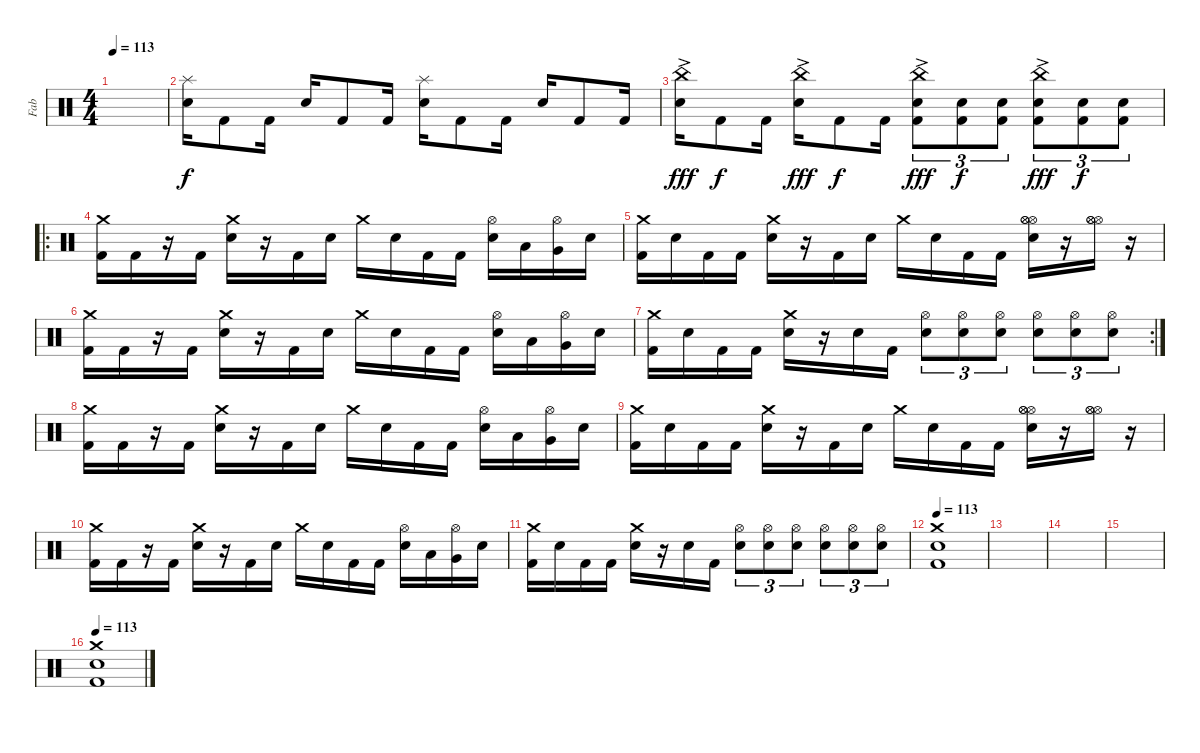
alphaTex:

\track ("Fab" "Fab") {instrument percussion}
\staff {score}
\articulation defaults
\ts (4 4)
\tempo 113
\clef neutral
\ks c
|
("Splash (hit)" "Electric Snare (hit)").16 "Kick (hit) 2".8 "Kick (hit) 2".16 "Electric Snare (hit)".16 "Kick (hit) 2".8 "Kick (hit) 2".16 ("Splash (hit)" "Electric Snare (hit)").16 "Kick (hit) 2".8 "Kick (hit) 2".16 "Electric Snare (hit)".16 "Kick (hit) 2".8 "Kick (hit) 2".16 |
("China (hit)"{ac} "Electric Snare (hit)").16{dy fff} "Kick (hit) 2".8{dy f} "Kick (hit) 2".16 ("China (hit)"{ac} "Electric Snare (hit)").16{dy fff} "Kick (hit) 2".8{dy f} "Kick (hit) 2".16 ("China (hit)"{ac} "Electric Snare (hit)" "Kick (hit) 2").8{tu (3 2) dy fff} ("Electric Snare (hit)" "Kick (hit) 2").8{tu (3 2) dy f} ("Electric Snare (hit)" "Kick (hit) 2").8{tu (3 2)} ("China (hit)"{ac} "Electric Snare (hit)" "Kick (hit) 2").8{tu (3 2) dy fff} ("Electric Snare (hit)" "Kick (hit) 2").8{tu (3 2) dy f} ("Electric Snare (hit)" "Kick (hit) 2").8{tu (3 2)} |
\ro
("Crash medium (hit)" "Kick (hit) 2").16 "Kick (hit) 2".16 r.16 "Kick (hit) 2".16 ("Crash medium (hit)" "Electric Snare (hit)").16 r.16 "Kick (hit) 2".16 "Electric Snare (hit)".16 "Crash medium (hit)".16 "Electric Snare (hit)".16 "Kick (hit) 2".16 "Kick (hit) 2".16 ("Hi-Hat (open)" "Electric Snare (hit)").16 "Low Tom (hit)".16 ("Hi-Hat (open)" "Very Low Tom (hit)").16 "Electric Snare (hit)".16 |
("Crash medium (hit)" "Kick (hit) 2").16 "Electric Snare (hit)".16 "Kick (hit) 2".16 "Kick (hit) 2".16 ("Crash medium (hit)" "Electric Snare (hit)").16 r.16 "Kick (hit) 2".16 "Electric Snare (hit)".16 "Crash medium (hit)".16 "Electric Snare (hit)".16 "Kick (hit) 2".16 "Kick (hit) 2".16 ("Hi-Hat (open)" "Hi-Hat (open)" "Hi-Hat (open)" "Electric Snare (hit)").16 r.16 ("Hi-Hat (open)" "Hi-Hat (open)" "Hi-Hat (open)").16 r.16 |
("Crash medium (hit)" "Kick (hit) 2").16 "Kick (hit) 2".16 r.16 "Kick (hit) 2".16 ("Crash medium (hit)" "Electric Snare (hit)").16 r.16 "Kick (hit) 2".16 "Electric Snare (hit)".16 "Crash medium (hit)".16 "Electric Snare (hit)".16 "Kick (hit) 2".16 "Kick (hit) 2".16 ("Hi-Hat (open)" "Electric Snare (hit)").16 "Low Tom (hit)".16 ("Hi-Hat (open)" "Very Low Tom (hit)").16 "Electric Snare (hit)".16 |
\rc 2
("Crash medium (hit)" "Kick (hit) 2").16 "Electric Snare (hit)".16 "Kick (hit) 2".16 "Kick (hit) 2".16 ("Crash medium (hit)" "Electric Snare (hit)").16 r.16 "Electric Snare (hit)".16 "Kick (hit) 2".16 ("Hi-Hat (open)" "Electric Snare (hit)").8{tu (3 2)} ("Hi-Hat (open)" "Electric Snare (hit)").8{tu (3 2)} ("Hi-Hat (open)" "Electric Snare (hit)").8{tu (3 2)} ("Hi-Hat (open)" "Electric Snare (hit)").8{tu (3 2)} ("Hi-Hat (open)" "Electric Snare (hit)").8{tu (3 2)} ("Hi-Hat (open)" "Electric Snare (hit)").8{tu (3 2)} |
("Crash medium (hit)" "Kick (hit) 2").16 "Kick (hit) 2".16 r.16 "Kick (hit) 2".16 ("Crash medium (hit)" "Electric Snare (hit)").16 r.16 "Kick (hit) 2".16 "Electric Snare (hit)".16 "Crash medium (hit)".16 "Electric Snare (hit)".16 "Kick (hit) 2".16 "Kick (hit) 2".16 ("Hi-Hat (open)" "Electric Snare (hit)").16 "Low Tom (hit)".16 ("Hi-Hat (open)" "Very Low Tom (hit)").16 "Electric Snare (hit)".16 |
("Crash medium (hit)" "Kick (hit) 2").16 "Electric Snare (hit)".16 "Kick (hit) 2".16 "Kick (hit) 2".16 ("Crash medium (hit)" "Electric Snare (hit)").16 r.16 "Kick (hit) 2".16 "Electric Snare (hit)".16 "Crash medium (hit)".16 "Electric Snare (hit)".16 "Kick (hit) 2".16 "Kick (hit) 2".16 ("Hi-Hat (open)" "Hi-Hat (open)" "Hi-Hat (open)" "Electric Snare (hit)").16 r.16 ("Hi-Hat (open)" "Hi-Hat (open)" "Hi-Hat (open)").16 r.16 |
("Crash medium (hit)" "Kick (hit) 2").16 "Kick (hit) 2".16 r.16 "Kick (hit) 2".16 ("Crash medium (hit)" "Electric Snare (hit)").16 r.16 "Kick (hit) 2".16 "Electric Snare (hit)".16 "Crash medium (hit)".16 "Electric Snare (hit)".16 "Kick (hit) 2".16 "Kick (hit) 2".16 ("Hi-Hat (open)" "Electric Snare (hit)").16 "Low Tom (hit)".16 ("Hi-Hat (open)" "Very Low Tom (hit)").16 "Electric Snare (hit)".16 |
("Crash medium (hit)" "Kick (hit) 2").16 "Electric Snare (hit)".16 "Kick (hit) 2".16 "Kick (hit) 2".16 ("Crash medium (hit)" "Electric Snare (hit)").16 r.16 "Electric Snare (hit)".16 "Kick (hit) 2".16 ("Hi-Hat (open)" "Electric Snare (hit)").8{tu (3 2)} ("Hi-Hat (open)" "Electric Snare (hit)").8{tu (3 2)} ("Hi-Hat (open)" "Electric Snare (hit)").8{tu (3 2)} ("Hi-Hat (open)" "Electric Snare (hit)").8{tu (3 2)} ("Hi-Hat (open)" "Electric Snare (hit)").8{tu (3 2)} ("Hi-Hat (open)" "Electric Snare (hit)").8{tu (3 2)} |
\tempo 113
("Crash medium (hit)" "Electric Snare (hit)" "Kick (hit) 2").1 |
|
|
|
\tempo 113
("Crash medium (hit)" "Electric Snare (hit)" "Kick (hit) 2").1
